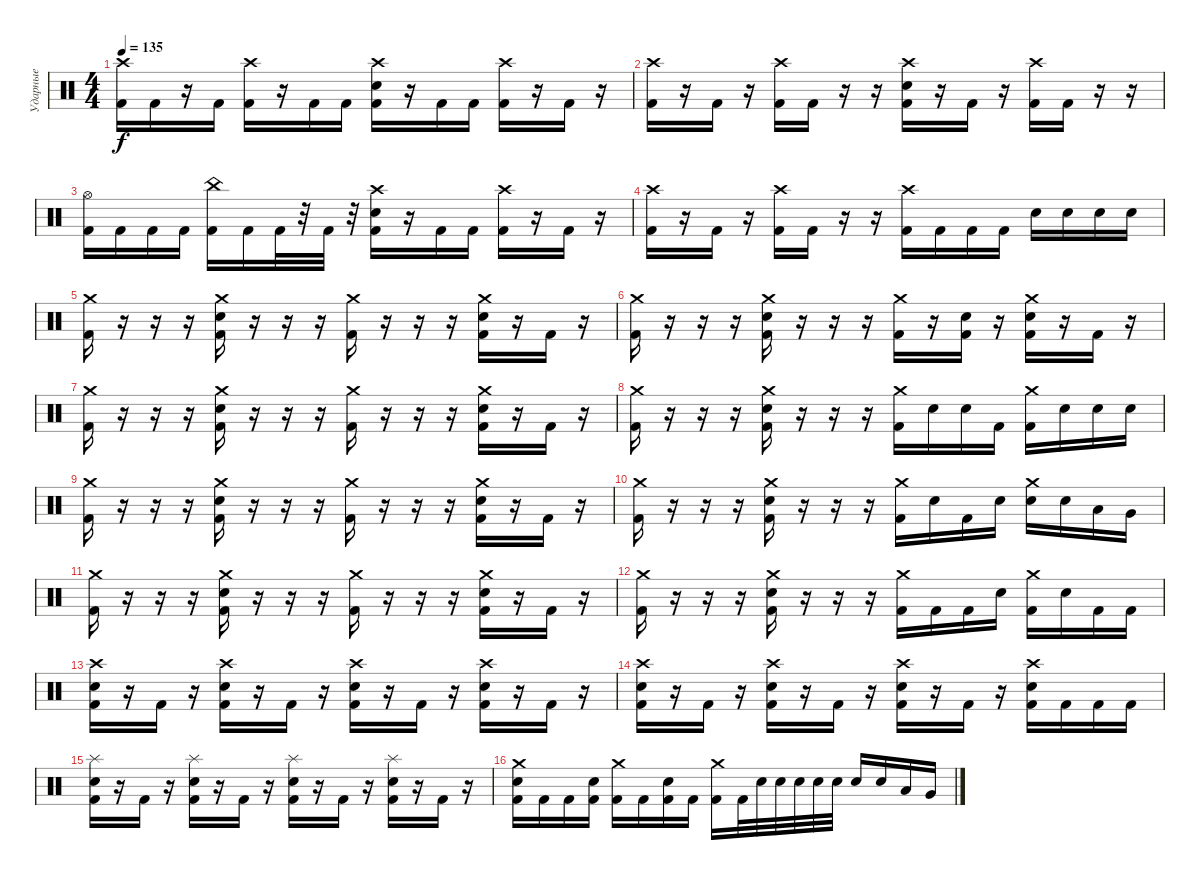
\track ("Ударные" "Ударные") {instrument percussion}
\staff {score}
\articulation defaults
\ts (4 4)
\tempo 135
\clef neutral
\ks c
("Crash high (hit)" "Kick (hit) 2").16{dy f} "Kick (hit) 2".16 r.16 "Kick (hit) 2".16 ("Crash high (hit)" "Kick (hit) 2").16 r.16 "Kick (hit) 2".16 "Kick (hit) 2".16 ("Crash high (hit)" "Snare (hit) 2" "Kick (hit) 2").16 r.16 "Kick (hit) 2".16 "Kick (hit) 2".16 ("Crash high (hit)" "Kick (hit) 2").16 r.16 "Kick (hit) 2".16 r.16 |
("Crash high (hit)" "Kick (hit) 2").16 r.16 "Kick (hit) 2".16 r.16 ("Crash high (hit)" "Kick (hit) 2").16 "Kick (hit) 2".16 r.16 r.16 ("Crash high (hit)" "Snare (hit) 2" "Kick (hit) 2").16 r.16 "Kick (hit) 2".16 r.16 ("Crash high (hit)" "Kick (hit) 2").16 "Kick (hit) 2".16 r.16 r.16 |
("Hi-Hat (open)" "Kick (hit) 2").16 "Kick (hit) 2".16 "Kick (hit) 2".16 "Kick (hit) 2".16 ("China (hit)" "Kick (hit) 2").16 "Kick (hit) 2".16 "Kick (hit) 2".32 r.32 "Kick (hit) 2".32 r.32 ("Crash high (hit)" "Snare (hit) 2" "Kick (hit) 2").16 r.16 "Kick (hit) 2".16 "Kick (hit) 2".16 ("Crash high (hit)" "Kick (hit) 2").16 r.16 "Kick (hit) 2".16 r.16 |
("Crash high (hit)" "Kick (hit) 2").16 r.16 "Kick (hit) 2".16 r.16 ("Crash high (hit)" "Kick (hit) 2").16 "Kick (hit) 2".16 r.16 r.16 ("Crash high (hit)" "Kick (hit) 2").16 "Kick (hit) 2".16 "Kick (hit) 2".16 "Kick (hit) 2".16 "Electric Snare (hit)".16 "Electric Snare (hit)".16 "Electric Snare (hit)".16 "Electric Snare (hit)".16 |
("Crash medium (hit)" "Kick (hit) 2").16 r.16 r.16 r.16 ("Crash medium (hit)" "Electric Snare (hit)" "Kick (hit) 2").16 r.16 r.16 r.16 ("Crash medium (hit)" "Kick (hit) 2").16 r.16 r.16 r.16 ("Crash medium (hit)" "Electric Snare (hit)" "Kick (hit) 2").16 r.16 "Kick (hit) 2".16 r.16 |
("Crash medium (hit)" "Kick (hit) 2").16 r.16 r.16 r.16 ("Crash medium (hit)" "Electric Snare (hit)" "Kick (hit) 2").16 r.16 r.16 r.16 ("Crash medium (hit)" "Kick (hit) 2").16 r.16 ("Electric Snare (hit)" "Kick (hit) 2").16 r.16 ("Crash medium (hit)" "Electric Snare (hit)" "Kick (hit) 2").16 r.16 "Kick (hit) 2".16 r.16 |
("Crash medium (hit)" "Kick (hit) 2").16 r.16 r.16 r.16 ("Crash medium (hit)" "Electric Snare (hit)" "Kick (hit) 2").16 r.16 r.16 r.16 ("Crash medium (hit)" "Kick (hit) 2").16 r.16 r.16 r.16 ("Crash medium (hit)" "Electric Snare (hit)" "Kick (hit) 2").16 r.16 "Kick (hit) 2".16 r.16 |
("Crash medium (hit)" "Kick (hit) 2").16 r.16 r.16 r.16 ("Crash medium (hit)" "Electric Snare (hit)" "Kick (hit) 2").16 r.16 r.16 r.16 ("Crash medium (hit)" "Kick (hit) 2").16 "Electric Snare (hit)".16 "Electric Snare (hit)".16 "Kick (hit) 2".16 ("Crash medium (hit)" "Kick (hit) 2").16 "Electric Snare (hit)".16 "Electric Snare (hit)".16 "Electric Snare (hit)".16 |
("Crash medium (hit)" "Kick (hit) 2").16 r.16 r.16 r.16 ("Crash medium (hit)" "Electric Snare (hit)" "Kick (hit) 2").16 r.16 r.16 r.16 ("Crash medium (hit)" "Kick (hit) 2").16 r.16 r.16 r.16 ("Crash medium (hit)" "Electric Snare (hit)" "Kick (hit) 2").16 r.16 "Kick (hit) 2".16 r.16 |
("Crash medium (hit)" "Kick (hit) 2").16 r.16 r.16 r.16 ("Crash medium (hit)" "Electric Snare (hit)" "Kick (hit) 2").16 r.16 r.16 r.16 ("Crash medium (hit)" "Kick (hit) 2").16 "Electric Snare (hit)".16 "Kick (hit) 2".16 "Electric Snare (hit)".16 ("Crash medium (hit)" "Electric Snare (hit)").16 "Electric Snare (hit)".16 "Low Tom (hit)".16 "Very Low Tom (hit)".16 |
("Crash medium (hit)" "Kick (hit) 2").16 r.16 r.16 r.16 ("Crash medium (hit)" "Electric Snare (hit)" "Kick (hit) 2").16 r.16 r.16 r.16 ("Crash medium (hit)" "Kick (hit) 2").16 r.16 r.16 r.16 ("Crash medium (hit)" "Electric Snare (hit)" "Kick (hit) 2").16 r.16 "Kick (hit) 2".16 r.16 |
("Crash medium (hit)" "Kick (hit) 2").16 r.16 r.16 r.16 ("Crash medium (hit)" "Electric Snare (hit)" "Kick (hit) 2").16 r.16 r.16 r.16 ("Crash medium (hit)" "Kick (hit) 2").16 "Kick (hit) 2".16 "Kick (hit) 2".16 "Electric Snare (hit)".16 ("Crash medium (hit)" "Kick (hit) 2").16 "Electric Snare (hit)".16 "Kick (hit) 2".16 "Kick (hit) 2".16 |
("Crash high (hit)" "Electric Snare (hit)" "Kick (hit) 2").16 r.16 "Kick (hit) 2".16 r.16 ("Crash high (hit)" "Electric Snare (hit)" "Kick (hit) 2").16 r.16 "Kick (hit) 2".16 r.16 ("Crash high (hit)" "Electric Snare (hit)" "Kick (hit) 2").16 r.16 "Kick (hit) 2".16 r.16 ("Crash high (hit)" "Electric Snare (hit)" "Kick (hit) 2").16 r.16 "Kick (hit) 2".16 r.16 |
("Crash high (hit)" "Electric Snare (hit)" "Kick (hit) 2").16 r.16 "Kick (hit) 2".16 r.16 ("Crash high (hit)" "Electric Snare (hit)" "Kick (hit) 2").16 r.16 "Kick (hit) 2".16 r.16 ("Crash high (hit)" "Electric Snare (hit)" "Kick (hit) 2").16 r.16 "Kick (hit) 2".16 r.16 ("Crash high (hit)" "Electric Snare (hit)" "Kick (hit) 2").16 "Kick (hit) 2".16 "Kick (hit) 2".16 "Kick (hit) 2".16 |
("Splash (hit)" "Electric Snare (hit)" "Kick (hit) 2").16 r.16 "Kick (hit) 2".16 r.16 ("Splash (hit)" "Electric Snare (hit)" "Kick (hit) 2").16 r.16 "Kick (hit) 2".16 r.16 ("Splash (hit)" "Electric Snare (hit)" "Kick (hit) 2").16 r.16 "Kick (hit) 2".16 r.16 ("Splash (hit)" "Electric Snare (hit)" "Kick (hit) 2").16 r.16 "Kick (hit) 2".16 r.16 |
("Crash medium (hit)" "Electric Snare (hit)" "Kick (hit) 2").16 "Kick (hit) 2".16 "Kick (hit) 2".16 ("Electric Snare (hit)" "Kick (hit) 2").16 ("Crash medium (hit)" "Kick (hit) 2").16 "Kick (hit) 2".16 ("Electric Snare (hit)" "Kick (hit) 2").16 "Kick (hit) 2".16 ("Crash medium (hit)" "Kick (hit) 2").16 "Kick (hit) 2".32 "Electric Snare (hit)".32 "Electric Snare (hit)".32 "Electric Snare (hit)".32 "Electric Snare (hit)".32 "Electric Snare (hit)".32 "Electric Snare (hit)".16 "Electric Snare (hit)".16 "Low Tom (hit)".16 "Very Low Tom (hit)".16
